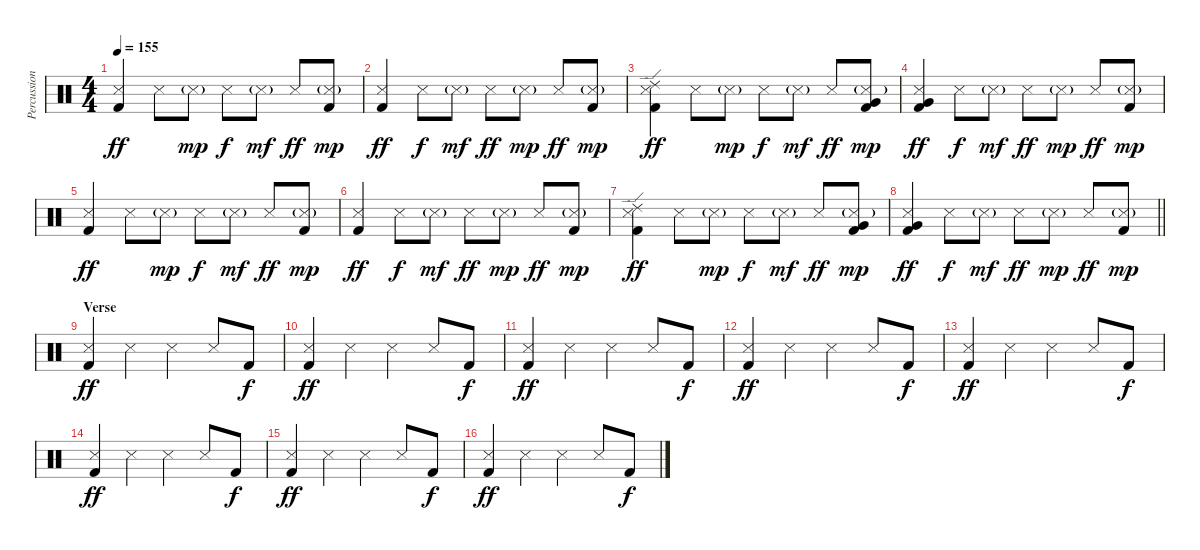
\track ("Percussion" "Percussion") {instrument percussion}
\staff {score}
\articulation defaults
\ts (4 4)
\tempo 155
\clef neutral
\ks c
("Snare (side stick) 3" "Kick (hit) 2").4{dy ff} "Snare (side stick) 3".8 "Snare (side stick) 3"{g}.8{dy mp} "Snare (side stick) 3".8{dy f} "Snare (side stick) 3"{g}.8{dy mf} "Snare (side stick) 3".8{dy ff} ("Snare (side stick) 3"{g} "Kick (hit) 2").8{dy mp} |
("Snare (side stick) 3" "Kick (hit) 2").4{dy ff} "Snare (side stick) 3".8{dy f} "Snare (side stick) 3"{g}.8{dy mf} "Snare (side stick) 3".8{dy ff} "Snare (side stick) 3"{g}.8{dy mp} "Snare (side stick) 3".8{dy ff} ("Snare (side stick) 3"{g} "Kick (hit) 2").8{dy mp} |
("Ride (edge) 2" "Snare (side stick) 3" "Kick (hit) 2").4{dy ff} "Snare (side stick) 3".8 "Snare (side stick) 3"{g}.8{dy mp} "Snare (side stick) 3".8{dy f} "Snare (side stick) 3"{g}.8{dy mf} "Snare (side stick) 3".8{dy ff} ("Snare (side stick) 3"{g} "Very Low Tom (hit)" "Kick (hit) 2").8{dy mp} |
("Snare (side stick) 3" "Very Low Tom (hit)" "Kick (hit) 2").4{dy ff} "Snare (side stick) 3".8{dy f} "Snare (side stick) 3"{g}.8{dy mf} "Snare (side stick) 3".8{dy ff} "Snare (side stick) 3"{g}.8{dy mp} "Snare (side stick) 3".8{dy ff} ("Snare (side stick) 3"{g} "Kick (hit) 2").8{dy mp} |
("Snare (side stick) 3" "Kick (hit) 2").4{dy ff} "Snare (side stick) 3".8 "Snare (side stick) 3"{g}.8{dy mp} "Snare (side stick) 3".8{dy f} "Snare (side stick) 3"{g}.8{dy mf} "Snare (side stick) 3".8{dy ff} ("Snare (side stick) 3"{g} "Kick (hit) 2").8{dy mp} |
("Snare (side stick) 3" "Kick (hit) 2").4{dy ff} "Snare (side stick) 3".8{dy f} "Snare (side stick) 3"{g}.8{dy mf} "Snare (side stick) 3".8{dy ff} "Snare (side stick) 3"{g}.8{dy mp} "Snare (side stick) 3".8{dy ff} ("Snare (side stick) 3"{g} "Kick (hit) 2").8{dy mp} |
("Ride (edge) 2" "Snare (side stick) 3" "Kick (hit) 2").4{dy ff} "Snare (side stick) 3".8 "Snare (side stick) 3"{g}.8{dy mp} "Snare (side stick) 3".8{dy f} "Snare (side stick) 3"{g}.8{dy mf} "Snare (side stick) 3".8{dy ff} ("Snare (side stick) 3"{g} "Very Low Tom (hit)" "Kick (hit) 2").8{dy mp} |
\barLineRight lightlight
("Snare (side stick) 3" "Very Low Tom (hit)" "Kick (hit) 2").4{dy ff} "Snare (side stick) 3".8{dy f} "Snare (side stick) 3"{g}.8{dy mf} "Snare (side stick) 3".8{dy ff} "Snare (side stick) 3"{g}.8{dy mp} "Snare (side stick) 3".8{dy ff} ("Snare (side stick) 3"{g} "Kick (hit) 2").8{dy mp} |
\section ("" "Verse")
("Snare (side stick) 3" "Kick (hit) 2").4{dy ff} "Snare (side stick) 3".4 "Snare (side stick) 3".4 "Snare (side stick) 3".8 "Kick (hit) 2".8{dy f} |
("Snare (side stick) 3" "Kick (hit) 2").4{dy ff} "Snare (side stick) 3".4 "Snare (side stick) 3".4 "Snare (side stick) 3".8 "Kick (hit) 2".8{dy f} |
("Snare (side stick) 3" "Kick (hit) 2").4{dy ff} "Snare (side stick) 3".4 "Snare (side stick) 3".4 "Snare (side stick) 3".8 "Kick (hit) 2".8{dy f} |
("Snare (side stick) 3" "Kick (hit) 2").4{dy ff} "Snare (side stick) 3".4 "Snare (side stick) 3".4 "Snare (side stick) 3".8 "Kick (hit) 2".8{dy f} |
("Snare (side stick) 3" "Kick (hit) 2").4{dy ff} "Snare (side stick) 3".4 "Snare (side stick) 3".4 "Snare (side stick) 3".8 "Kick (hit) 2".8{dy f} |
("Snare (side stick) 3" "Kick (hit) 2").4{dy ff} "Snare (side stick) 3".4 "Snare (side stick) 3".4 "Snare (side stick) 3".8 "Kick (hit) 2".8{dy f} |
("Snare (side stick) 3" "Kick (hit) 2").4{dy ff} "Snare (side stick) 3".4 "Snare (side stick) 3".4 "Snare (side stick) 3".8 "Kick (hit) 2".8{dy f} |
("Snare (side stick) 3" "Kick (hit) 2").4{dy ff} "Snare (side stick) 3".4 "Snare (side stick) 3".4 "Snare (side stick) 3".8 "Kick (hit) 2".8{dy f}
